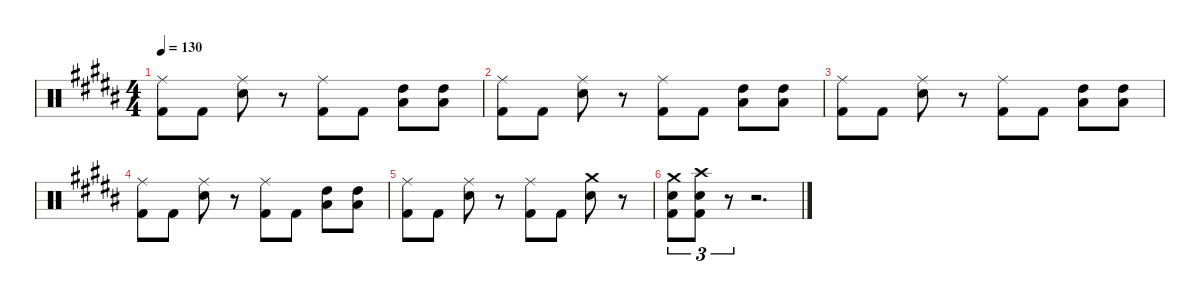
\defaultSystemsLayout 4
\hideDynamics
\bracketExtendMode nobrackets
\singleTrackTrackNamePolicy hidden
\multiTrackTrackNamePolicy hidden
\firstSystemTrackNameMode fullname
\otherSystemsTrackNameOrientation horizontal
\track ("DRUMS" "drm.") {instrument percussion}
\staff {score}
\articulation defaults
\ts (4 4)
\tempo 130
\clef neutral
\ks b
("Ride (middle)"{acc bb} "Kick (hit) 2"{acc bb}).8{dy ff beam Down} "Kick (hit) 2"{acc bb}.8{beam Down} ("Ride (middle)"{acc bb} "Snare (hit) 2"{acc bb}).8{beam Down} r.8{beam Down} ("Ride (middle)"{acc bb} "Kick (hit) 2"{acc bb}).8{beam Down} "Kick (hit) 2"{acc bb}.8{beam Down} ("Low Tom (hit)"{acc bb} "High Tom (hit)"{acc bb}).8{beam Down} ("Low Tom (hit)"{acc bb} "High Tom (hit)"{acc bb}).8{beam Down} |
("Ride (middle)"{acc bb} "Kick (hit) 2"{acc bb}).8{beam Down} "Kick (hit) 2"{acc bb}.8{beam Down} ("Ride (middle)"{acc bb} "Snare (hit) 2"{acc bb}).8{beam Down} r.8{beam Down} ("Ride (middle)"{acc bb} "Kick (hit) 2"{acc bb}).8{beam Down} "Kick (hit) 2"{acc bb}.8{beam Down} ("Low Tom (hit)"{acc bb} "High Tom (hit)"{acc bb}).8{beam Down} ("Low Tom (hit)"{acc bb} "High Tom (hit)"{acc bb}).8{beam Down} |
("Ride (middle)"{acc bb} "Kick (hit) 2"{acc bb}).8{beam Down} "Kick (hit) 2"{acc bb}.8{beam Down} ("Ride (middle)"{acc bb} "Snare (hit) 2"{acc bb}).8{beam Down} r.8{beam Down} ("Ride (middle)"{acc bb} "Kick (hit) 2"{acc bb}).8{beam Down} "Kick (hit) 2"{acc bb}.8{beam Down} ("Low Tom (hit)"{acc bb} "High Tom (hit)"{acc bb}).8{beam Down} ("Low Tom (hit)"{acc bb} "High Tom (hit)"{acc bb}).8{beam Down} |
("Ride (middle)"{acc bb} "Kick (hit) 2"{acc bb}).8{beam Down} "Kick (hit) 2"{acc bb}.8{beam Down} ("Ride (middle)"{acc bb} "Snare (hit) 2"{acc bb}).8{beam Down} r.8{beam Down} ("Ride (middle)"{acc bb} "Kick (hit) 2"{acc bb}).8{beam Down} "Kick (hit) 2"{acc bb}.8{beam Down} ("Low Tom (hit)"{acc bb} "High Tom (hit)"{acc bb}).8{beam Down} ("Low Tom (hit)"{acc bb} "High Tom (hit)"{acc bb}).8{beam Down} |
("Ride (middle)"{acc bb} "Kick (hit) 2"{acc bb}).8{beam Down} "Kick (hit) 2"{acc bb}.8{beam Down} ("Ride (middle)"{acc bb} "Snare (hit) 2"{acc bb}).8{beam Down} r.8{beam Down} ("Ride (middle)"{acc bb} "Kick (hit) 2"{acc bb}).8{beam Down} "Kick (hit) 2"{acc bb}.8{beam Down} ("Crash medium (hit)"{acc bb} "Snare (hit) 2"{acc bb}).8{dy mf beam Down} r.8{beam Down} |
("Crash medium (hit)"{acc bb} "Snare (hit) 2"{acc bb} "Kick (hit) 2"{acc bb}).8{tu (3 2) dy ff beam Down} ("Crash high (hit)"{acc bb} "Snare (hit) 2"{acc bb} "Kick (hit) 2"{acc bb}).8{tu (3 2) beam Down} r.8{tu (3 2) beam Down} r.2{d beam Down}
